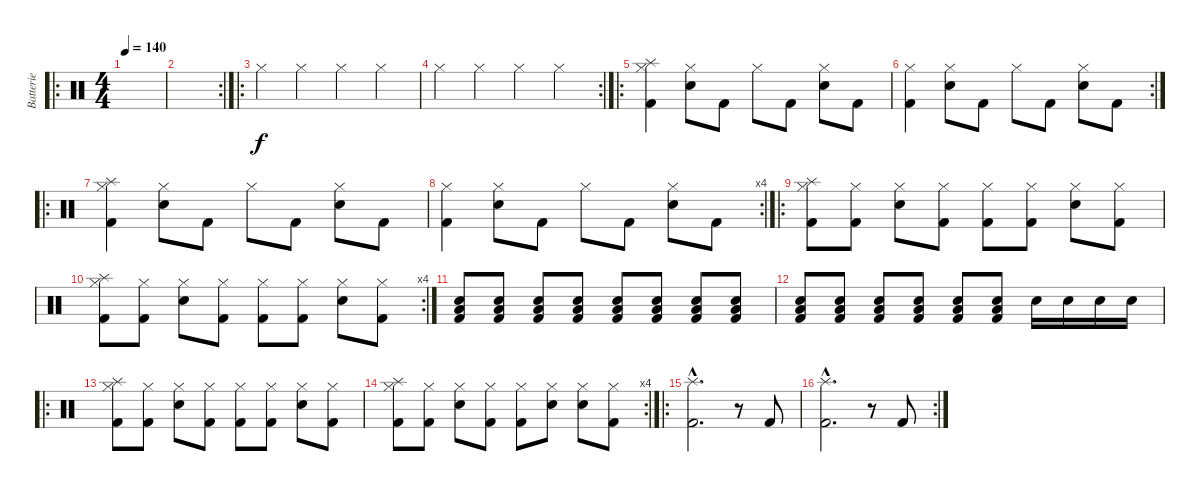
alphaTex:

\track ("Batterie" "Batterie") {instrument percussion}
\staff {score}
\articulation defaults
\ro
\ts (4 4)
\tempo 140
\clef neutral
\ks c
|
\rc 2
|
\ro "Hi-Hat (closed)".4 "Hi-Hat (closed)".4 "Hi-Hat (closed)".4 "Hi-Hat (closed)".4
|
\rc 2 "Hi-Hat (closed)".4 "Hi-Hat (closed)".4 "Hi-Hat (closed)".4 "Hi-Hat (closed)".4
|
\ro
("Splash (hit)" "Hi-Hat (closed)" "Kick (hit) 2").4 ("Hi-Hat (closed)" "Snare (hit) 2").8 "Kick (hit) 2".8 "Hi-Hat (closed)".8 "Kick (hit) 2".8 ("Hi-Hat (closed)" "Snare (hit) 2").8 "Kick (hit) 2".8 |
\rc 2
("Hi-Hat (closed)" "Kick (hit) 2").4 ("Hi-Hat (closed)" "Snare (hit) 2").8 "Kick (hit) 2".8 "Hi-Hat (closed)".8 "Kick (hit) 2".8 ("Hi-Hat (closed)" "Snare (hit) 2").8 "Kick (hit) 2".8 |
\ro
("Splash (hit)" "Hi-Hat (closed)" "Kick (hit) 2").4 ("Hi-Hat (closed)" "Snare (hit) 2").8 "Kick (hit) 2".8 "Hi-Hat (closed)".8 "Kick (hit) 2".8 ("Hi-Hat (closed)" "Snare (hit) 2").8 "Kick (hit) 2".8 |
\rc 4
("Hi-Hat (closed)" "Kick (hit) 2").4 ("Hi-Hat (closed)" "Snare (hit) 2").8 "Kick (hit) 2".8 "Hi-Hat (closed)".8 "Kick (hit) 2".8 ("Hi-Hat (closed)" "Snare (hit) 2").8 "Kick (hit) 2".8 |
\ro
("Splash (hit)" "Hi-Hat (closed)" "Kick (hit) 2").8 ("Hi-Hat (closed)" "Kick (hit) 2").8 ("Hi-Hat (closed)" "Snare (hit) 2").8 ("Hi-Hat (closed)" "Kick (hit) 2").8 ("Hi-Hat (closed)" "Kick (hit) 2").8 ("Hi-Hat (closed)" "Kick (hit) 2").8 ("Hi-Hat (closed)" "Snare (hit) 2").8 ("Hi-Hat (closed)" "Kick (hit) 2").8 |
\rc 4
("Splash (hit)" "Hi-Hat (closed)" "Kick (hit) 2").8 ("Hi-Hat (closed)" "Kick (hit) 2").8 ("Hi-Hat (closed)" "Snare (hit) 2").8 ("Hi-Hat (closed)" "Kick (hit) 2").8 ("Hi-Hat (closed)" "Kick (hit) 2").8 ("Hi-Hat (closed)" "Kick (hit) 2").8 ("Hi-Hat (closed)" "Snare (hit) 2").8 ("Hi-Hat (closed)" "Kick (hit) 2").8 |
("Snare (hit) 2" "Low Tom (hit)" "Kick (hit) 2").8 ("Snare (hit) 2" "Low Tom (hit)" "Kick (hit) 2").8 ("Snare (hit) 2" "Low Tom (hit)" "Kick (hit) 2").8 ("Snare (hit) 2" "Low Tom (hit)" "Kick (hit) 2").8 ("Snare (hit) 2" "Low Tom (hit)" "Kick (hit) 2").8 ("Snare (hit) 2" "Low Tom (hit)" "Kick (hit) 2").8 ("Snare (hit) 2" "Low Tom (hit)" "Kick (hit) 2").8 ("Snare (hit) 2" "Low Tom (hit)" "Kick (hit) 2").8 |
("Snare (hit) 2" "Low Tom (hit)" "Kick (hit) 2").8 ("Snare (hit) 2" "Low Tom (hit)" "Kick (hit) 2").8 ("Snare (hit) 2" "Low Tom (hit)" "Kick (hit) 2").8 ("Snare (hit) 2" "Low Tom (hit)" "Kick (hit) 2").8 ("Snare (hit) 2" "Low Tom (hit)" "Kick (hit) 2").8 ("Snare (hit) 2" "Low Tom (hit)" "Kick (hit) 2").8 "Snare (hit) 2".16 "Snare (hit) 2".16 "Snare (hit) 2".16 "Snare (hit) 2".16 |
\ro
("Splash (hit)" "Hi-Hat (closed)" "Kick (hit) 2").8 ("Hi-Hat (closed)" "Kick (hit) 2").8 ("Hi-Hat (closed)" "Snare (hit) 2").8 ("Hi-Hat (closed)" "Kick (hit) 2").8 ("Hi-Hat (closed)" "Kick (hit) 2").8 ("Hi-Hat (closed)" "Kick (hit) 2").8 ("Hi-Hat (closed)" "Snare (hit) 2").8 ("Hi-Hat (closed)" "Kick (hit) 2").8 |
\rc 4
("Splash (hit)" "Hi-Hat (closed)" "Kick (hit) 2").8 ("Hi-Hat (closed)" "Kick (hit) 2").8 ("Hi-Hat (closed)" "Snare (hit) 2").8 ("Hi-Hat (closed)" "Kick (hit) 2").8 ("Hi-Hat (closed)" "Kick (hit) 2").8 ("Hi-Hat (closed)" "Snare (hit) 2").8 ("Hi-Hat (closed)" "Snare (hit) 2").8 ("Hi-Hat (closed)" "Kick (hit) 2").8 |
\ro
("Splash (hit)"{hac} "Kick (hit) 2"{hac}).2{d} r.8 "Kick (hit) 2".8 |
\rc 2
("Splash (hit)"{hac} "Kick (hit) 2"{hac}).2{d} r.8 "Kick (hit) 2".8
